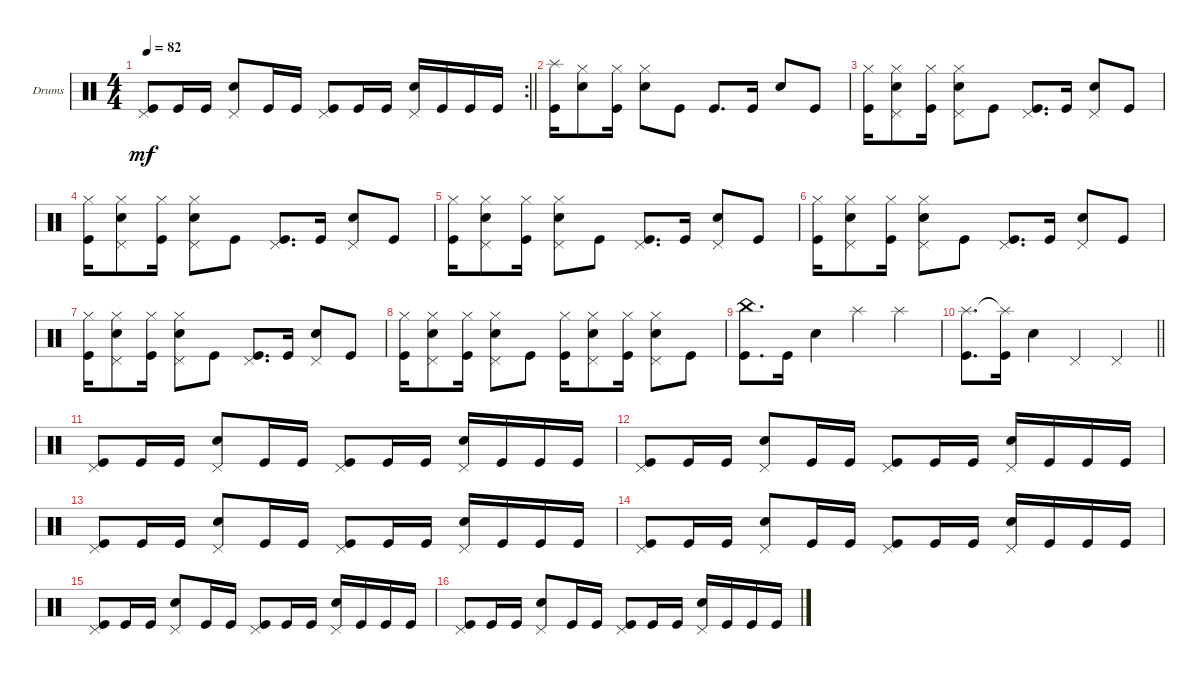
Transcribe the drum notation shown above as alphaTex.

\bracketExtendMode groupsimilarinstruments
\firstSystemTrackNameOrientation horizontal
\otherSystemsTrackNameOrientation horizontal
\track ("Drumkit" "Drums") {multiBarRest instrument percussion}
\staff {score}
\articulation defaults
\rc 2
\ts (4 4)
\tempo 82
\clef neutral
\barLineRight lightlight
\ks c
("Kick (hit)" "Pedal Hi-Hat (hit)").8{dy mf} "Kick (hit)".16 "Kick (hit)".16 ("Snare (hit) 2" "Pedal Hi-Hat (hit)").8 "Kick (hit)".16 "Kick (hit)".16 ("Kick (hit)" "Pedal Hi-Hat (hit)").8 "Kick (hit)".16 "Kick (hit)".16 ("Pedal Hi-Hat (hit)" "Snare (hit) 2").16 "Kick (hit)".16 "Kick (hit)".16 "Kick (hit)".16 |
("Kick (hit)" "Splash (hit)").16 ("Snare (hit) 2" "Hi-Hat (closed)").8 ("Kick (hit)" "Hi-Hat (closed)").16 ("Hi-Hat (closed)" "Snare (hit) 2").8 "Kick (hit)".8 "Kick (hit)".8{d} "Kick (hit)".16 "Snare (hit) 2".8 "Kick (hit)".8 |
("Kick (hit)" "Hi-Hat (closed)").16 ("Snare (hit) 2" "Hi-Hat (closed)" "Pedal Hi-Hat (hit)").8 ("Kick (hit)" "Hi-Hat (closed)").16 ("Hi-Hat (closed)" "Snare (hit) 2" "Pedal Hi-Hat (hit)").8 "Kick (hit)".8 ("Kick (hit)" "Pedal Hi-Hat (hit)").8{d} "Kick (hit)".16 ("Snare (hit) 2" "Pedal Hi-Hat (hit)").8 "Kick (hit)".8 |
("Kick (hit)" "Hi-Hat (closed)").16 ("Snare (hit) 2" "Hi-Hat (closed)" "Pedal Hi-Hat (hit)").8 ("Kick (hit)" "Hi-Hat (closed)").16 ("Hi-Hat (closed)" "Snare (hit) 2" "Pedal Hi-Hat (hit)").8 "Kick (hit)".8 ("Kick (hit)" "Pedal Hi-Hat (hit)").8{d} "Kick (hit)".16 ("Snare (hit) 2" "Pedal Hi-Hat (hit)").8 "Kick (hit)".8 |
("Kick (hit)" "Hi-Hat (closed)").16 ("Snare (hit) 2" "Hi-Hat (closed)" "Pedal Hi-Hat (hit)").8 ("Kick (hit)" "Hi-Hat (closed)").16 ("Hi-Hat (closed)" "Snare (hit) 2" "Pedal Hi-Hat (hit)").8 "Kick (hit)".8 ("Kick (hit)" "Pedal Hi-Hat (hit)").8{d} "Kick (hit)".16 ("Snare (hit) 2" "Pedal Hi-Hat (hit)").8 "Kick (hit)".8 |
("Kick (hit)" "Hi-Hat (closed)").16 ("Snare (hit) 2" "Hi-Hat (closed)" "Pedal Hi-Hat (hit)").8 ("Kick (hit)" "Hi-Hat (closed)").16 ("Hi-Hat (closed)" "Snare (hit) 2" "Pedal Hi-Hat (hit)").8 "Kick (hit)".8 ("Kick (hit)" "Pedal Hi-Hat (hit)").8{d} "Kick (hit)".16 ("Snare (hit) 2" "Pedal Hi-Hat (hit)").8 "Kick (hit)".8 |
("Kick (hit)" "Hi-Hat (closed)").16 ("Snare (hit) 2" "Hi-Hat (closed)" "Pedal Hi-Hat (hit)").8 ("Kick (hit)" "Hi-Hat (closed)").16 ("Hi-Hat (closed)" "Snare (hit) 2" "Pedal Hi-Hat (hit)").8 "Kick (hit)".8 ("Kick (hit)" "Pedal Hi-Hat (hit)").8{d} "Kick (hit)".16 ("Snare (hit) 2" "Pedal Hi-Hat (hit)").8 "Kick (hit)".8 |
("Kick (hit)" "Hi-Hat (closed)").16 ("Snare (hit) 2" "Hi-Hat (closed)" "Pedal Hi-Hat (hit)").8 ("Kick (hit)" "Hi-Hat (closed)").16 ("Hi-Hat (closed)" "Snare (hit) 2" "Pedal Hi-Hat (hit)").8 "Kick (hit)".8 ("Kick (hit)" "Hi-Hat (closed)").16 ("Snare (hit) 2" "Hi-Hat (closed)" "Pedal Hi-Hat (hit)").8 ("Kick (hit)" "Hi-Hat (closed)").16 ("Hi-Hat (closed)" "Snare (hit) 2" "Pedal Hi-Hat (hit)").8 "Kick (hit)".8 |
("Kick (hit)" "China (hit)").8{d} "Kick (hit)".16 "Snare (hit) 2".4 "Splash (hit)".4 "Splash (hit)".4 |
\barLineRight lightlight
("Kick (hit)" "Splash (hit)").8{d} ("Kick (hit)" "Splash (hit)"{t}).16 "Snare (hit) 2".4 "Pedal Hi-Hat (hit)".4 "Pedal Hi-Hat (hit)".4 |
("Kick (hit)" "Pedal Hi-Hat (hit)").8 "Kick (hit)".16 "Kick (hit)".16 ("Snare (hit) 2" "Pedal Hi-Hat (hit)").8 "Kick (hit)".16 "Kick (hit)".16 ("Kick (hit)" "Pedal Hi-Hat (hit)").8 "Kick (hit)".16 "Kick (hit)".16 ("Pedal Hi-Hat (hit)" "Snare (hit) 2").16 "Kick (hit)".16 "Kick (hit)".16 "Kick (hit)".16 |
("Kick (hit)" "Pedal Hi-Hat (hit)").8 "Kick (hit)".16 "Kick (hit)".16 ("Snare (hit) 2" "Pedal Hi-Hat (hit)").8 "Kick (hit)".16 "Kick (hit)".16 ("Kick (hit)" "Pedal Hi-Hat (hit)").8 "Kick (hit)".16 "Kick (hit)".16 ("Pedal Hi-Hat (hit)" "Snare (hit) 2").16 "Kick (hit)".16 "Kick (hit)".16 "Kick (hit)".16 |
("Kick (hit)" "Pedal Hi-Hat (hit)").8 "Kick (hit)".16 "Kick (hit)".16 ("Snare (hit) 2" "Pedal Hi-Hat (hit)").8 "Kick (hit)".16 "Kick (hit)".16 ("Kick (hit)" "Pedal Hi-Hat (hit)").8 "Kick (hit)".16 "Kick (hit)".16 ("Pedal Hi-Hat (hit)" "Snare (hit) 2").16 "Kick (hit)".16 "Kick (hit)".16 "Kick (hit)".16 |
("Kick (hit)" "Pedal Hi-Hat (hit)").8 "Kick (hit)".16 "Kick (hit)".16 ("Snare (hit) 2" "Pedal Hi-Hat (hit)").8 "Kick (hit)".16 "Kick (hit)".16 ("Kick (hit)" "Pedal Hi-Hat (hit)").8 "Kick (hit)".16 "Kick (hit)".16 ("Pedal Hi-Hat (hit)" "Snare (hit) 2").16 "Kick (hit)".16 "Kick (hit)".16 "Kick (hit)".16 |
("Kick (hit)" "Pedal Hi-Hat (hit)").8 "Kick (hit)".16 "Kick (hit)".16 ("Snare (hit) 2" "Pedal Hi-Hat (hit)").8 "Kick (hit)".16 "Kick (hit)".16 ("Kick (hit)" "Pedal Hi-Hat (hit)").8 "Kick (hit)".16 "Kick (hit)".16 ("Pedal Hi-Hat (hit)" "Snare (hit) 2").16 "Kick (hit)".16 "Kick (hit)".16 "Kick (hit)".16 |
("Kick (hit)" "Pedal Hi-Hat (hit)").8 "Kick (hit)".16 "Kick (hit)".16 ("Snare (hit) 2" "Pedal Hi-Hat (hit)").8 "Kick (hit)".16 "Kick (hit)".16 ("Kick (hit)" "Pedal Hi-Hat (hit)").8 "Kick (hit)".16 "Kick (hit)".16 ("Pedal Hi-Hat (hit)" "Snare (hit) 2").16 "Kick (hit)".16 "Kick (hit)".16 "Kick (hit)".16
